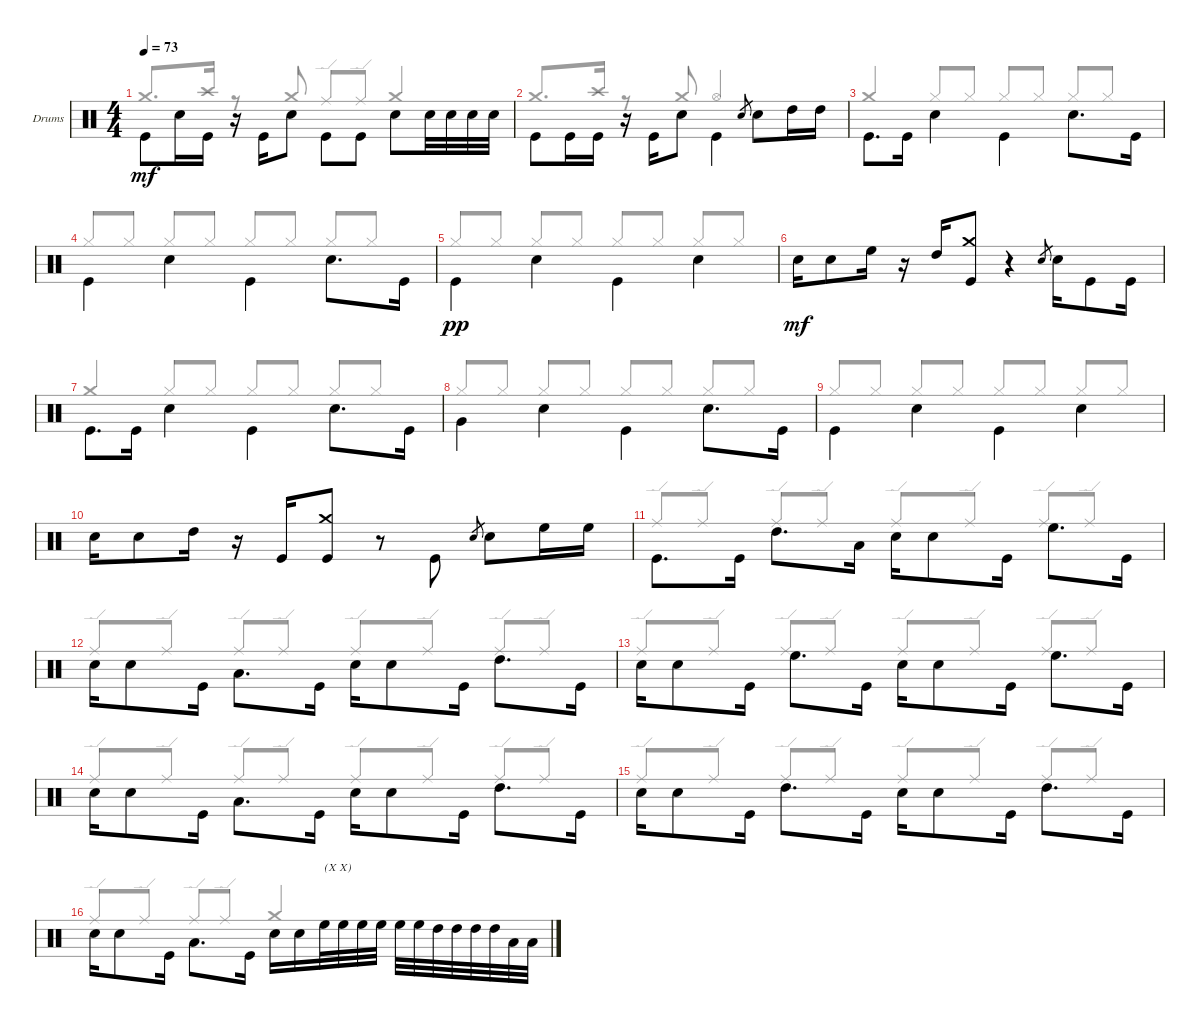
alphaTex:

\defaultSystemsLayout 4
\bracketExtendMode groupsimilarinstruments
\firstSystemTrackNameOrientation horizontal
\otherSystemsTrackNameOrientation horizontal
\track ("Drumkit" "Drums") {solo instrument percussion}
\staff {score}
\articulation defaults
\voice
\ts (4 4)
\tempo 73
\clef neutral
\ks c "Kick (hit)".8{dy mf beam invert} "Snare (hit) 2".16 "Kick (hit)".16
r.16 "Kick (hit)".16{beam invert} "Snare (hit) 2".8 "Kick (hit)".8{beam invert} "Kick (hit)".8 "Snare (hit) 2".8{beam invert} "Snare (hit) 2".32 "Snare (hit) 2".32 "Snare (hit) 2".32 "Snare (hit) 2".32 |
"Kick (hit)".8{beam invert} "Kick (hit)".16 "Kick (hit)".16 r.16 "Kick (hit)".16{beam invert} "Snare (hit) 2".8 "Kick (hit)".4{beam invert} "Snare (hit) 2".8{gr} "Snare (hit) 2".8{beam invert} "High Tom (hit)".16 "High Tom (hit)".16 |
"Kick (hit)".8{d beam invert} "Kick (hit)".16 "Snare (hit) 2".4{beam invert} "Kick (hit)".4{beam invert} "Snare (hit) 2".8{d beam invert} "Kick (hit)".16 |
"Kick (hit)".4{beam invert} "Snare (hit) 2".4{beam invert} "Kick (hit)".4{beam invert} "Snare (hit) 2".8{d beam invert} "Kick (hit)".16 |
"Kick (hit)".4{dy pp beam invert} "Snare (hit) 2".4{beam invert} "Kick (hit)".4{beam invert} "Snare (hit) 2".4{beam invert} |
"Snare (hit) 2".16{dy mf} "Snare (hit) 2".8 "High Floor Tom (hit)".16 r.16 "High Tom (hit)".16{beam invert} ("Kick (hit)" "Crash medium (hit)").8 r.4 "Snare (hit) 2".8{gr} "Snare (hit) 2".16{beam invert} "Kick (hit)".8 "Kick (hit)".16 |
"Kick (hit)".8{d beam invert} "Kick (hit)".16 "Snare (hit) 2".4{beam invert} "Kick (hit)".4{beam invert} "Snare (hit) 2".8{d beam invert} "Kick (hit)".16 |
"Very Low Tom (hit)".4{beam invert} "Snare (hit) 2".4{beam invert} "Kick (hit)".4{beam invert} "Snare (hit) 2".8{d beam invert} "Kick (hit)".16 |
"Kick (hit)".4{beam invert} "Snare (hit) 2".4{beam invert} "Kick (hit)".4{beam invert} "Snare (hit) 2".4{beam invert} |
"Snare (hit) 2".16 "Snare (hit) 2".8 "High Tom (hit)".16 r.16 "Kick (hit)".16{beam invert} ("Kick (hit)" "Crash medium (hit)").8 r.8 "Kick (hit)".8{beam invert} "Snare (hit) 2".8{gr} "Snare (hit) 2".8 "High Floor Tom (hit)".16 "High Floor Tom (hit)".16 |
"Kick (hit)".8{d beam invert} "Kick (hit)".16 "High Tom (hit)".8{d beam invert} "Low Tom (hit)".16 "Snare (hit) 2".16 "Snare (hit) 2".8{beam invert} "Kick (hit)".16 "High Floor Tom (hit)".8{d beam invert} "Kick (hit)".16 |
"Snare (hit) 2".16{beam invert} "Snare (hit) 2".8 "Kick (hit)".16 "Low Tom (hit)".8{d beam invert} "Kick (hit)".16 "Snare (hit) 2".16{beam invert} "Snare (hit) 2".8 "Kick (hit)".16 "High Tom (hit)".8{d beam invert} "Kick (hit)".16 |
"Snare (hit) 2".16{beam invert} "Snare (hit) 2".8 "Kick (hit)".16 "High Floor Tom (hit)".8{d beam invert} "Kick (hit)".16 "Snare (hit) 2".16{beam invert} "Snare (hit) 2".8 "Kick (hit)".16 "High Floor Tom (hit)".8{d beam invert} "Kick (hit)".16 |
"Snare (hit) 2".16{beam invert} "Snare (hit) 2".8 "Kick (hit)".16 "Low Tom (hit)".8{d beam invert} "Kick (hit)".16 "Snare (hit) 2".16{beam invert} "Snare (hit) 2".8 "Kick (hit)".16 "High Tom (hit)".8{d beam invert} "Kick (hit)".16 |
"Snare (hit) 2".16{beam invert} "Snare (hit) 2".8 "Kick (hit)".16 "High Tom (hit)".8{d beam invert} "Kick (hit)".16 "Snare (hit) 2".16{beam invert} "Snare (hit) 2".8 "Kick (hit)".16 "High Tom (hit)".8{d beam invert} "Kick (hit)".16 |
"Snare (hit) 2".16{beam invert} "Snare (hit) 2".8 "Kick (hit)".16 "Low Tom (hit)".8{d beam invert} "Kick (hit)".16 "Snare (hit) 2".16{beam invert} "Snare (hit) 2".16 "High Floor Tom (hit)".32{txt "(X X)"} "High Floor Tom (hit)".32 "High Floor Tom (hit)".32 "High Floor Tom (hit)".32 "High Floor Tom (hit)".32{beam invert} "High Floor Tom (hit)".32 "High Tom (hit)".32 "High Tom (hit)".32 "High Tom (hit)".32 "High Tom (hit)".32 "Low Tom (hit)".32 "Low Tom (hit)".32
\voice
\clef neutral
\ottava regular
\simile none
\ks c "Crash medium (hit)".8{d dy mf beam invert} "Crash high (hit)".16
r.8 "Crash medium (hit)".8{beam invert} "Ride (edge)".8{beam invert} "Ride (edge)".8 "Crash medium (hit)".4{beam invert} |
"Crash medium (hit)".8{d beam invert} "Crash high (hit)".16 r.8 "Crash medium (hit)".8{beam invert} "Hi-Hat (open)".2{beam invert} |
"Crash medium (hit)".4{beam invert} "Hi-Hat (closed)".8{beam invert} "Hi-Hat (closed)".8 "Hi-Hat (closed)".8{beam invert} "Hi-Hat (closed)".8 "Hi-Hat (closed)".8{beam invert} "Hi-Hat (closed)".8 |
"Hi-Hat (closed)".8{beam invert} "Hi-Hat (closed)".8 "Hi-Hat (closed)".8{beam invert} "Hi-Hat (closed)".8 "Hi-Hat (closed)".8{beam invert} "Hi-Hat (closed)".8 "Hi-Hat (closed)".8{beam invert} "Hi-Hat (closed)".8 |
"Hi-Hat (closed)".8{beam invert} "Hi-Hat (closed)".8 "Hi-Hat (closed)".8{beam invert} "Hi-Hat (closed)".8 "Hi-Hat (closed)".8{beam invert} "Hi-Hat (closed)".8 "Hi-Hat (closed)".8{beam invert} "Hi-Hat (closed)".8 |
|
"Crash medium (hit)".4{beam invert} "Hi-Hat (closed)".8{beam invert} "Hi-Hat (closed)".8 "Hi-Hat (closed)".8{beam invert} "Hi-Hat (closed)".8 "Hi-Hat (closed)".8{beam invert} "Hi-Hat (closed)".8 |
"Hi-Hat (closed)".8{beam invert} "Hi-Hat (closed)".8 "Hi-Hat (closed)".8{beam invert} "Hi-Hat (closed)".8 "Hi-Hat (closed)".8{beam invert} "Hi-Hat (closed)".8 "Hi-Hat (closed)".8{beam invert} "Hi-Hat (closed)".8 |
"Hi-Hat (closed)".8{beam invert} "Hi-Hat (closed)".8 "Hi-Hat (closed)".8{beam invert} "Hi-Hat (closed)".8 "Hi-Hat (closed)".8{beam invert} "Hi-Hat (closed)".8 "Hi-Hat (closed)".8{beam invert} "Hi-Hat (closed)".8 |
|
"Ride (edge)".8{beam invert} "Ride (edge)".8 "Ride (edge)".8{beam invert} "Ride (edge)".8 "Ride (edge)".8{beam invert} "Ride (edge)".8 "Ride (edge)".8{beam invert} "Ride (edge)".8 |
"Ride (edge)".8{beam invert} "Ride (edge)".8 "Ride (edge)".8{beam invert} "Ride (edge)".8 "Ride (edge)".8{beam invert} "Ride (edge)".8 "Ride (edge)".8{beam invert} "Ride (edge)".8 |
"Ride (edge)".8{beam invert} "Ride (edge)".8 "Ride (edge)".8{beam invert} "Ride (edge)".8 "Ride (edge)".8{beam invert} "Ride (edge)".8 "Ride (edge)".8{beam invert} "Ride (edge)".8 |
"Ride (edge)".8{beam invert} "Ride (edge)".8 "Ride (edge)".8{beam invert} "Ride (edge)".8 "Ride (edge)".8{beam invert} "Ride (edge)".8 "Ride (edge)".8{beam invert} "Ride (edge)".8 |
"Ride (edge)".8{beam invert} "Ride (edge)".8 "Ride (edge)".8{beam invert} "Ride (edge)".8 "Ride (edge)".8{beam invert} "Ride (edge)".8 "Ride (edge)".8{beam invert} "Ride (edge)".8 |
"Ride (edge)".8{beam invert} "Ride (edge)".8 "Ride (edge)".8{beam invert} "Ride (edge)".8 "Crash medium (hit)".2{beam invert}
